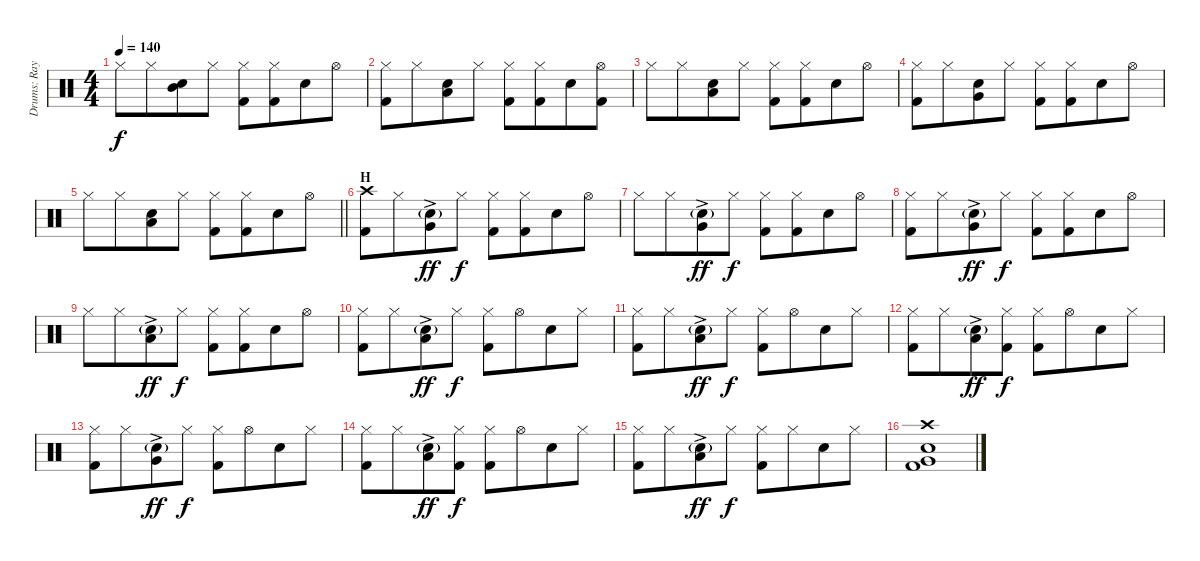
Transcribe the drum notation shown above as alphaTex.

\track ("Drums: Ray Cooper" "Drums: Ray") {instrument percussion}
\staff {score}
\articulation defaults
\ts (4 4)
\tempo 140
\clef neutral
\ks c "Hi-Hat (closed)".8{dy f} "Hi-Hat (closed)".8{beam merge}
("Electric Snare (hit)" "Mid Tom (hit)").8 "Hi-Hat (closed)".8 ("Hi-Hat (closed)" "Kick (hit) 2").8 ("Hi-Hat (closed)" "Kick (hit) 2").8{beam merge} "Electric Snare (hit)".8 "Hi-Hat (open)".8 |
("Hi-Hat (closed)" "Kick (hit) 2").8 "Hi-Hat (closed)".8{beam merge} ("Electric Snare (hit)" "Low Tom (hit)").8 "Hi-Hat (closed)".8 ("Hi-Hat (closed)" "Kick (hit) 2").8 ("Hi-Hat (closed)" "Kick (hit) 2").8{beam merge} "Electric Snare (hit)".8 ("Hi-Hat (open)" "Kick (hit) 2").8 |
"Hi-Hat (closed)".8 "Hi-Hat (closed)".8{beam merge} ("Electric Snare (hit)" "Low Tom (hit)").8 "Hi-Hat (closed)".8 ("Hi-Hat (closed)" "Kick (hit) 2").8 ("Hi-Hat (closed)" "Kick (hit) 2").8{beam merge} "Electric Snare (hit)".8 "Hi-Hat (open)".8 |
("Hi-Hat (closed)" "Kick (hit) 2").8 "Hi-Hat (closed)".8{beam merge} ("Electric Snare (hit)" "Very Low Tom (hit)").8 "Hi-Hat (closed)".8 ("Hi-Hat (closed)" "Kick (hit) 2").8 ("Hi-Hat (closed)" "Kick (hit) 2").8{beam merge} "Electric Snare (hit)".8 "Hi-Hat (open)".8 |
\barLineRight lightlight "Hi-Hat (closed)".8 "Hi-Hat (closed)".8{beam merge}
("Electric Snare (hit)" "Low Floor Tom (hit)").8 "Hi-Hat (closed)".8 ("Hi-Hat (closed)" "Kick (hit) 2").8 ("Hi-Hat (closed)" "Kick (hit) 2").8{beam merge} "Electric Snare (hit)".8 "Hi-Hat (open)".8 |
\section ("" "H")
("Crash high (hit)" "Kick (hit) 2").8 "Hi-Hat (closed)".8{beam merge} ("Electric Snare (hit)"{g} "Very Low Tom (hit)"{ac}).8{dy ff} "Hi-Hat (closed)".8{dy f} ("Hi-Hat (closed)" "Kick (hit) 2").8 ("Hi-Hat (closed)" "Kick (hit) 2").8{beam merge} "Electric Snare (hit)".8 "Hi-Hat (open)".8 |
"Hi-Hat (closed)".8 "Hi-Hat (closed)".8{beam merge} ("Electric Snare (hit)"{g} "Very Low Tom (hit)"{ac}).8{dy ff} "Hi-Hat (closed)".8{dy f} ("Hi-Hat (closed)" "Kick (hit) 2").8 ("Hi-Hat (closed)" "Kick (hit) 2").8{beam merge} "Electric Snare (hit)".8 "Hi-Hat (open)".8 |
("Hi-Hat (closed)" "Kick (hit) 2").8 "Hi-Hat (closed)".8{beam merge} ("Electric Snare (hit)"{g} "Very Low Tom (hit)"{ac}).8{dy ff} "Hi-Hat (closed)".8{dy f} ("Hi-Hat (closed)" "Kick (hit) 2").8 ("Hi-Hat (closed)" "Kick (hit) 2").8{beam merge} "Electric Snare (hit)".8 "Hi-Hat (open)".8 |
"Hi-Hat (closed)".8 "Hi-Hat (closed)".8{beam merge} ("Electric Snare (hit)"{g} "Low Floor Tom (hit)"{ac}).8{dy ff} "Hi-Hat (closed)".8{dy f} ("Hi-Hat (closed)" "Kick (hit) 2").8 ("Hi-Hat (closed)" "Kick (hit) 2").8{beam merge} "Electric Snare (hit)".8 "Hi-Hat (open)".8 |
("Hi-Hat (closed)" "Kick (hit) 2").8 "Hi-Hat (closed)".8{beam merge} ("Electric Snare (hit)"{g} "Low Floor Tom (hit)"{ac}).8{dy ff} "Hi-Hat (closed)".8{dy f} ("Hi-Hat (closed)" "Kick (hit) 2").8 "Hi-Hat (open)".8{beam merge} "Electric Snare (hit)".8 "Hi-Hat (closed)".8 |
("Hi-Hat (closed)" "Kick (hit) 2").8 "Hi-Hat (closed)".8{beam merge} ("Electric Snare (hit)"{g} "Low Floor Tom (hit)"{ac}).8{dy ff} "Hi-Hat (closed)".8{dy f} ("Hi-Hat (closed)" "Kick (hit) 2").8 "Hi-Hat (open)".8{beam merge} "Electric Snare (hit)".8 "Hi-Hat (closed)".8 |
("Hi-Hat (closed)" "Kick (hit) 2").8 "Hi-Hat (closed)".8{beam merge} ("Electric Snare (hit)"{g} "Low Floor Tom (hit)"{ac}).8{dy ff} ("Hi-Hat (closed)" "Kick (hit) 2").8{dy f} ("Hi-Hat (closed)" "Kick (hit) 2").8 "Hi-Hat (open)".8{beam merge} "Electric Snare (hit)".8 "Hi-Hat (closed)".8 |
("Hi-Hat (closed)" "Kick (hit) 2").8 "Hi-Hat (closed)".8{beam merge} ("Electric Snare (hit)"{g} "Very Low Tom (hit)"{ac}).8{dy ff} "Hi-Hat (closed)".8{dy f} ("Hi-Hat (closed)" "Kick (hit) 2").8 "Hi-Hat (open)".8{beam merge} "Electric Snare (hit)".8 "Hi-Hat (closed)".8 |
("Hi-Hat (closed)" "Kick (hit) 2").8 "Hi-Hat (closed)".8{beam merge} ("Electric Snare (hit)"{g} "Low Floor Tom (hit)"{ac}).8{dy ff} ("Hi-Hat (closed)" "Kick (hit) 2").8{dy f} ("Hi-Hat (closed)" "Kick (hit) 2").8 "Hi-Hat (open)".8{beam merge} "Electric Snare (hit)".8 "Hi-Hat (closed)".8 |
("Hi-Hat (closed)" "Kick (hit) 2").8 "Hi-Hat (closed)".8{beam merge} ("Electric Snare (hit)"{g} "Low Floor Tom (hit)"{ac}).8{dy ff} "Hi-Hat (closed)".8{dy f} ("Hi-Hat (closed)" "Kick (hit) 2").8 "Hi-Hat (closed)".8{beam merge} "Electric Snare (hit)".8 "Hi-Hat (closed)".8 |
("Crash high (hit)" "Electric Snare (hit)" "Very Low Tom (hit)" "Kick (hit) 2").1
